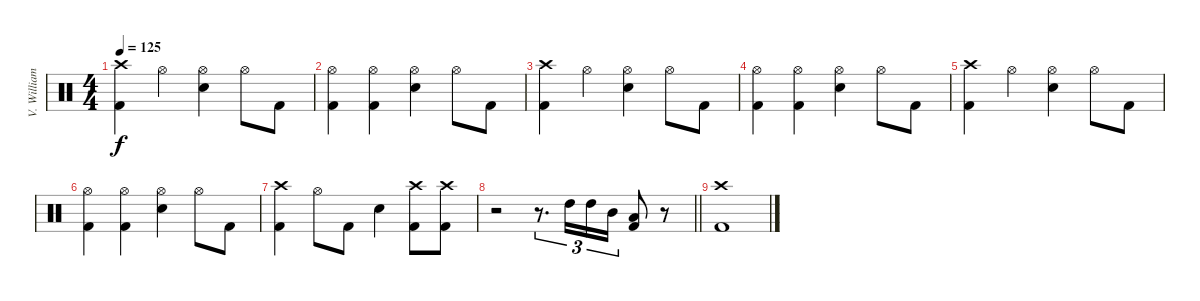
\track ("V. Williams (Drums)" "V. William") {instrument percussion}
\staff {score}
\articulation defaults
\ts (4 4)
\section ("" "")
\tempo 125
\clef neutral
\ks c
("Crash high (hit)" "Kick (hit) 2").4{dy f} "Hi-Hat (open)".4 ("Hi-Hat (open)" "Electric Snare (hit)").4 "Hi-Hat (open)".8 "Kick (hit) 2".8 |
("Hi-Hat (open)" "Kick (hit) 2").4 ("Hi-Hat (open)" "Kick (hit) 2").4 ("Hi-Hat (open)" "Electric Snare (hit)").4 "Hi-Hat (open)".8 "Kick (hit) 2".8 |
("Crash high (hit)" "Kick (hit) 2").4 "Hi-Hat (open)".4 ("Hi-Hat (open)" "Electric Snare (hit)").4 "Hi-Hat (open)".8 "Kick (hit) 2".8 |
("Hi-Hat (open)" "Kick (hit) 2").4 ("Hi-Hat (open)" "Kick (hit) 2").4 ("Hi-Hat (open)" "Electric Snare (hit)").4 "Hi-Hat (open)".8 "Kick (hit) 2".8 |
("Crash high (hit)" "Kick (hit) 2").4 "Hi-Hat (open)".4 ("Hi-Hat (open)" "Electric Snare (hit)").4 "Hi-Hat (open)".8 "Kick (hit) 2".8 |
("Hi-Hat (open)" "Kick (hit) 2").4 ("Hi-Hat (open)" "Kick (hit) 2").4 ("Hi-Hat (open)" "Electric Snare (hit)").4 "Hi-Hat (open)".8 "Kick (hit) 2".8 |
("Crash high (hit)" "Kick (hit) 2").4 "Hi-Hat (open)".8 "Kick (hit) 2".8 "Electric Snare (hit)".4 ("Crash high (hit)" "Kick (hit) 2").8 ("Crash high (hit)" "Kick (hit) 2").8 |
\barLineRight lightlight
r.2 r.8{d tu (3 2)} "High Tom (hit)".16{tu (3 2)} "High Tom (hit)".16{tu (3 2)} "Mid Tom (hit)".16{tu (3 2)} ("Low Tom (hit)" "Kick (hit) 2").8 r.8 |
\section ("" "")
("Crash high (hit)" "Kick (hit) 2").1
